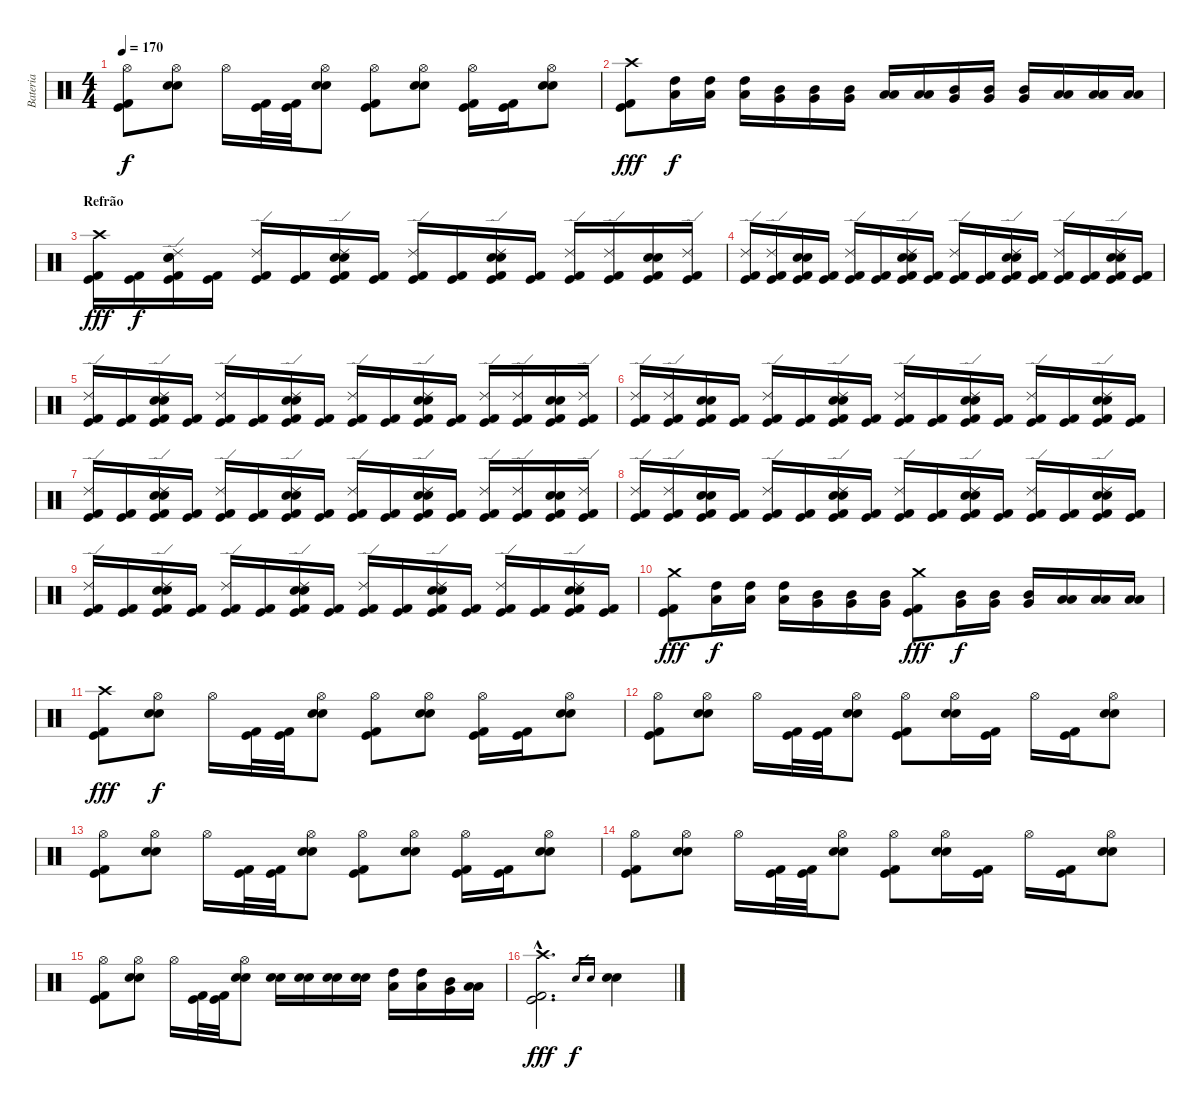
\track ("Bateria" "Bateria") {instrument percussion}
\staff {score}
\articulation defaults
\ts (4 4)
\tempo 170
\clef neutral
\ks c
("Hi-Hat (open)" "Kick (hit) 2" "Kick (hit)").8{dy f} ("Hi-Hat (open)" "Electric Snare (hit)" "Snare (hit) 2").8 "Hi-Hat (open)".16 ("Kick (hit) 2" "Kick (hit)").32 ("Kick (hit) 2" "Kick (hit)").32 ("Hi-Hat (open)" "Electric Snare (hit)" "Snare (hit) 2").8 ("Hi-Hat (open)" "Kick (hit) 2" "Kick (hit)").8 ("Hi-Hat (open)" "Electric Snare (hit)" "Snare (hit) 2").8 ("Hi-Hat (open)" "Kick (hit) 2" "Kick (hit)").16 ("Kick (hit) 2" "Kick (hit)").16 ("Hi-Hat (open)" "Electric Snare (hit)" "Snare (hit) 2").8 |
("Crash high (hit)" "Kick (hit) 2" "Kick (hit)").8{dy fff} ("High Tom (hit)" "Low Tom (hit)").16{dy f} ("High Tom (hit)" "Low Tom (hit)").16 ("High Tom (hit)" "Low Tom (hit)").16 ("Mid Tom (hit)" "Very Low Tom (hit)").16 ("Mid Tom (hit)" "Very Low Tom (hit)").16 ("Mid Tom (hit)" "Very Low Tom (hit)").16 ("Low Tom (hit)" "Low Floor Tom (hit)").16 ("Low Tom (hit)" "Low Floor Tom (hit)").16 ("Mid Tom (hit)" "Very Low Tom (hit)").16 ("Mid Tom (hit)" "Very Low Tom (hit)").16 ("Mid Tom (hit)" "Very Low Tom (hit)").16 ("Low Tom (hit)" "Low Floor Tom (hit)").16 ("Low Tom (hit)" "Low Floor Tom (hit)").16 ("Low Tom (hit)" "Low Floor Tom (hit)").16 |
\section ("" "Refrão")
("Crash high (hit)" "Kick (hit) 2" "Kick (hit)").16{dy fff} ("Kick (hit) 2" "Kick (hit)").16{dy f} ("Ride (edge) 2" "Electric Snare (hit)" "Snare (hit) 2" "Kick (hit) 2" "Kick (hit)").16 ("Kick (hit) 2" "Kick (hit)").16 ("Ride (edge) 2" "Kick (hit) 2" "Kick (hit)").16 ("Kick (hit) 2" "Kick (hit)").16 ("Ride (edge) 2" "Electric Snare (hit)" "Snare (hit) 2" "Kick (hit) 2" "Kick (hit)").16 ("Kick (hit) 2" "Kick (hit)").16 ("Ride (edge) 2" "Kick (hit) 2" "Kick (hit)").16 ("Kick (hit) 2" "Kick (hit)").16 ("Ride (edge) 2" "Electric Snare (hit)" "Snare (hit) 2" "Kick (hit) 2" "Kick (hit)").16 ("Kick (hit) 2" "Kick (hit)").16 ("Ride (edge) 2" "Kick (hit) 2" "Kick (hit)").16 ("Ride (edge) 2" "Kick (hit) 2" "Kick (hit)").16 ("Electric Snare (hit)" "Snare (hit) 2" "Kick (hit) 2" "Kick (hit)").16 ("Ride (edge) 2" "Kick (hit) 2" "Kick (hit)").16 |
("Ride (edge) 2" "Kick (hit) 2" "Kick (hit)").16 ("Ride (edge) 2" "Kick (hit) 2" "Kick (hit)").16 ("Electric Snare (hit)" "Snare (hit) 2" "Kick (hit) 2" "Kick (hit)").16 ("Kick (hit) 2" "Kick (hit)").16 ("Ride (edge) 2" "Kick (hit) 2" "Kick (hit)").16 ("Kick (hit) 2" "Kick (hit)").16 ("Ride (edge) 2" "Electric Snare (hit)" "Snare (hit) 2" "Kick (hit) 2" "Kick (hit)").16 ("Kick (hit) 2" "Kick (hit)").16 ("Ride (edge) 2" "Kick (hit) 2" "Kick (hit)").16 ("Kick (hit) 2" "Kick (hit)").16 ("Ride (edge) 2" "Electric Snare (hit)" "Snare (hit) 2" "Kick (hit) 2" "Kick (hit)").16 ("Kick (hit) 2" "Kick (hit)").16 ("Ride (edge) 2" "Kick (hit) 2" "Kick (hit)").16 ("Kick (hit) 2" "Kick (hit)").16 ("Ride (edge) 2" "Electric Snare (hit)" "Snare (hit) 2" "Kick (hit) 2" "Kick (hit)").16 ("Kick (hit) 2" "Kick (hit)").16 |
("Ride (edge) 2" "Kick (hit) 2" "Kick (hit)").16 ("Kick (hit) 2" "Kick (hit)").16 ("Ride (edge) 2" "Electric Snare (hit)" "Snare (hit) 2" "Kick (hit) 2" "Kick (hit)").16 ("Kick (hit) 2" "Kick (hit)").16 ("Ride (edge) 2" "Kick (hit) 2" "Kick (hit)").16 ("Kick (hit) 2" "Kick (hit)").16 ("Ride (edge) 2" "Electric Snare (hit)" "Snare (hit) 2" "Kick (hit) 2" "Kick (hit)").16 ("Kick (hit) 2" "Kick (hit)").16 ("Ride (edge) 2" "Kick (hit) 2" "Kick (hit)").16 ("Kick (hit) 2" "Kick (hit)").16 ("Ride (edge) 2" "Electric Snare (hit)" "Snare (hit) 2" "Kick (hit) 2" "Kick (hit)").16 ("Kick (hit) 2" "Kick (hit)").16 ("Ride (edge) 2" "Kick (hit) 2" "Kick (hit)").16 ("Ride (edge) 2" "Kick (hit) 2" "Kick (hit)").16 ("Electric Snare (hit)" "Snare (hit) 2" "Kick (hit) 2" "Kick (hit)").16 ("Ride (edge) 2" "Kick (hit) 2" "Kick (hit)").16 |
("Ride (edge) 2" "Kick (hit) 2" "Kick (hit)").16 ("Ride (edge) 2" "Kick (hit) 2" "Kick (hit)").16 ("Electric Snare (hit)" "Snare (hit) 2" "Kick (hit) 2" "Kick (hit)").16 ("Kick (hit) 2" "Kick (hit)").16 ("Ride (edge) 2" "Kick (hit) 2" "Kick (hit)").16 ("Kick (hit) 2" "Kick (hit)").16 ("Ride (edge) 2" "Electric Snare (hit)" "Snare (hit) 2" "Kick (hit) 2" "Kick (hit)").16 ("Kick (hit) 2" "Kick (hit)").16 ("Ride (edge) 2" "Kick (hit) 2" "Kick (hit)").16 ("Kick (hit) 2" "Kick (hit)").16 ("Ride (edge) 2" "Electric Snare (hit)" "Snare (hit) 2" "Kick (hit) 2" "Kick (hit)").16 ("Kick (hit) 2" "Kick (hit)").16 ("Ride (edge) 2" "Kick (hit) 2" "Kick (hit)").16 ("Kick (hit) 2" "Kick (hit)").16 ("Ride (edge) 2" "Electric Snare (hit)" "Snare (hit) 2" "Kick (hit) 2" "Kick (hit)").16 ("Kick (hit) 2" "Kick (hit)").16 |
("Ride (edge) 2" "Kick (hit) 2" "Kick (hit)").16 ("Kick (hit) 2" "Kick (hit)").16 ("Ride (edge) 2" "Electric Snare (hit)" "Snare (hit) 2" "Kick (hit) 2" "Kick (hit)").16 ("Kick (hit) 2" "Kick (hit)").16 ("Ride (edge) 2" "Kick (hit) 2" "Kick (hit)").16 ("Kick (hit) 2" "Kick (hit)").16 ("Ride (edge) 2" "Electric Snare (hit)" "Snare (hit) 2" "Kick (hit) 2" "Kick (hit)").16 ("Kick (hit) 2" "Kick (hit)").16 ("Ride (edge) 2" "Kick (hit) 2" "Kick (hit)").16 ("Kick (hit) 2" "Kick (hit)").16 ("Ride (edge) 2" "Electric Snare (hit)" "Snare (hit) 2" "Kick (hit) 2" "Kick (hit)").16 ("Kick (hit) 2" "Kick (hit)").16 ("Ride (edge) 2" "Kick (hit) 2" "Kick (hit)").16 ("Ride (edge) 2" "Kick (hit) 2" "Kick (hit)").16 ("Electric Snare (hit)" "Snare (hit) 2" "Kick (hit) 2" "Kick (hit)").16 ("Ride (edge) 2" "Kick (hit) 2" "Kick (hit)").16 |
("Ride (edge) 2" "Kick (hit) 2" "Kick (hit)").16 ("Ride (edge) 2" "Kick (hit) 2" "Kick (hit)").16 ("Electric Snare (hit)" "Snare (hit) 2" "Kick (hit) 2" "Kick (hit)").16 ("Kick (hit) 2" "Kick (hit)").16 ("Ride (edge) 2" "Kick (hit) 2" "Kick (hit)").16 ("Kick (hit) 2" "Kick (hit)").16 ("Ride (edge) 2" "Electric Snare (hit)" "Snare (hit) 2" "Kick (hit) 2" "Kick (hit)").16 ("Kick (hit) 2" "Kick (hit)").16 ("Ride (edge) 2" "Kick (hit) 2" "Kick (hit)").16 ("Kick (hit) 2" "Kick (hit)").16 ("Ride (edge) 2" "Electric Snare (hit)" "Snare (hit) 2" "Kick (hit) 2" "Kick (hit)").16 ("Kick (hit) 2" "Kick (hit)").16 ("Ride (edge) 2" "Kick (hit) 2" "Kick (hit)").16 ("Kick (hit) 2" "Kick (hit)").16 ("Ride (edge) 2" "Electric Snare (hit)" "Snare (hit) 2" "Kick (hit) 2" "Kick (hit)").16 ("Kick (hit) 2" "Kick (hit)").16 |
("Ride (edge) 2" "Kick (hit) 2" "Kick (hit)").16 ("Kick (hit) 2" "Kick (hit)").16 ("Ride (edge) 2" "Electric Snare (hit)" "Snare (hit) 2" "Kick (hit) 2" "Kick (hit)").16 ("Kick (hit) 2" "Kick (hit)").16 ("Ride (edge) 2" "Kick (hit) 2" "Kick (hit)").16 ("Kick (hit) 2" "Kick (hit)").16 ("Ride (edge) 2" "Electric Snare (hit)" "Snare (hit) 2" "Kick (hit) 2" "Kick (hit)").16 ("Kick (hit) 2" "Kick (hit)").16 ("Ride (edge) 2" "Kick (hit) 2" "Kick (hit)").16 ("Kick (hit) 2" "Kick (hit)").16 ("Ride (edge) 2" "Electric Snare (hit)" "Snare (hit) 2" "Kick (hit) 2" "Kick (hit)").16 ("Kick (hit) 2" "Kick (hit)").16 ("Ride (edge) 2" "Kick (hit) 2" "Kick (hit)").16 ("Kick (hit) 2" "Kick (hit)").16 ("Ride (edge) 2" "Electric Snare (hit)" "Snare (hit) 2" "Kick (hit) 2" "Kick (hit)").16 ("Kick (hit) 2" "Kick (hit)").16 |
("Crash medium (hit)" "Kick (hit) 2" "Kick (hit)").8{dy fff} ("High Tom (hit)" "Low Tom (hit)").16{dy f} ("High Tom (hit)" "Low Tom (hit)").16 ("High Tom (hit)" "Low Tom (hit)").16 ("Mid Tom (hit)" "Very Low Tom (hit)").16 ("Mid Tom (hit)" "Very Low Tom (hit)").16 ("Mid Tom (hit)" "Very Low Tom (hit)").16 ("Crash medium (hit)" "Kick (hit) 2" "Kick (hit)").8{dy fff} ("Mid Tom (hit)" "Very Low Tom (hit)").16{dy f} ("Mid Tom (hit)" "Very Low Tom (hit)").16 ("Mid Tom (hit)" "Very Low Tom (hit)").16 ("Low Tom (hit)" "Low Floor Tom (hit)").16 ("Low Tom (hit)" "Low Floor Tom (hit)").16 ("Low Tom (hit)" "Low Floor Tom (hit)").16 |
("Crash high (hit)" "Kick (hit) 2" "Kick (hit)").8{dy fff} ("Hi-Hat (open)" "Electric Snare (hit)" "Snare (hit) 2").8{dy f} "Hi-Hat (open)".16 ("Kick (hit) 2" "Kick (hit)").32 ("Kick (hit) 2" "Kick (hit)").32 ("Hi-Hat (open)" "Electric Snare (hit)" "Snare (hit) 2").8 ("Hi-Hat (open)" "Kick (hit) 2" "Kick (hit)").8 ("Hi-Hat (open)" "Electric Snare (hit)" "Snare (hit) 2").8 ("Hi-Hat (open)" "Kick (hit) 2" "Kick (hit)").16 ("Kick (hit) 2" "Kick (hit)").16 ("Hi-Hat (open)" "Electric Snare (hit)" "Snare (hit) 2").8 |
("Hi-Hat (open)" "Kick (hit) 2" "Kick (hit)").8 ("Hi-Hat (open)" "Electric Snare (hit)" "Snare (hit) 2").8 "Hi-Hat (open)".16 ("Kick (hit) 2" "Kick (hit)").32 ("Kick (hit) 2" "Kick (hit)").32 ("Hi-Hat (open)" "Electric Snare (hit)" "Snare (hit) 2").8 ("Hi-Hat (open)" "Kick (hit) 2" "Kick (hit)").8 ("Hi-Hat (open)" "Electric Snare (hit)" "Snare (hit) 2").16 ("Kick (hit) 2" "Kick (hit)").16 "Hi-Hat (open)".16 ("Kick (hit) 2" "Kick (hit)").16 ("Hi-Hat (open)" "Electric Snare (hit)" "Snare (hit) 2").8 |
("Hi-Hat (open)" "Kick (hit) 2" "Kick (hit)").8 ("Hi-Hat (open)" "Electric Snare (hit)" "Snare (hit) 2").8 "Hi-Hat (open)".16 ("Kick (hit) 2" "Kick (hit)").32 ("Kick (hit) 2" "Kick (hit)").32 ("Hi-Hat (open)" "Electric Snare (hit)" "Snare (hit) 2").8 ("Hi-Hat (open)" "Kick (hit) 2" "Kick (hit)").8 ("Hi-Hat (open)" "Electric Snare (hit)" "Snare (hit) 2").8 ("Hi-Hat (open)" "Kick (hit) 2" "Kick (hit)").16 ("Kick (hit) 2" "Kick (hit)").16 ("Hi-Hat (open)" "Electric Snare (hit)" "Snare (hit) 2").8 |
("Hi-Hat (open)" "Kick (hit) 2" "Kick (hit)").8 ("Hi-Hat (open)" "Electric Snare (hit)" "Snare (hit) 2").8 "Hi-Hat (open)".16 ("Kick (hit) 2" "Kick (hit)").32 ("Kick (hit) 2" "Kick (hit)").32 ("Hi-Hat (open)" "Electric Snare (hit)" "Snare (hit) 2").8 ("Hi-Hat (open)" "Kick (hit) 2" "Kick (hit)").8 ("Hi-Hat (open)" "Electric Snare (hit)" "Snare (hit) 2").16 ("Kick (hit) 2" "Kick (hit)").16 "Hi-Hat (open)".16 ("Kick (hit) 2" "Kick (hit)").16 ("Hi-Hat (open)" "Electric Snare (hit)" "Snare (hit) 2").8 |
("Hi-Hat (open)" "Kick (hit) 2" "Kick (hit)").8 ("Hi-Hat (open)" "Electric Snare (hit)" "Snare (hit) 2").8 "Hi-Hat (open)".16 ("Kick (hit) 2" "Kick (hit)").32 ("Kick (hit) 2" "Kick (hit)").32 ("Hi-Hat (open)" "Electric Snare (hit)" "Snare (hit) 2").8 ("Electric Snare (hit)" "Snare (hit) 2").16 ("Electric Snare (hit)" "Snare (hit) 2").16 ("Electric Snare (hit)" "Snare (hit) 2").16 ("Electric Snare (hit)" "Snare (hit) 2").16 ("High Tom (hit)" "Low Tom (hit)").16 ("High Tom (hit)" "Low Tom (hit)").16 ("Mid Tom (hit)" "Very Low Tom (hit)").16 ("Low Tom (hit)" "Low Floor Tom (hit)").16 |
("Crash high (hit)"{hac} "Kick (hit) 2"{hac} "Kick (hit)"{hac}).2{d dy fff} "Electric Snare (hit)".16{gr dy f} "Snare (hit) 2".16{gr} ("Electric Snare (hit)" "Snare (hit) 2").4
